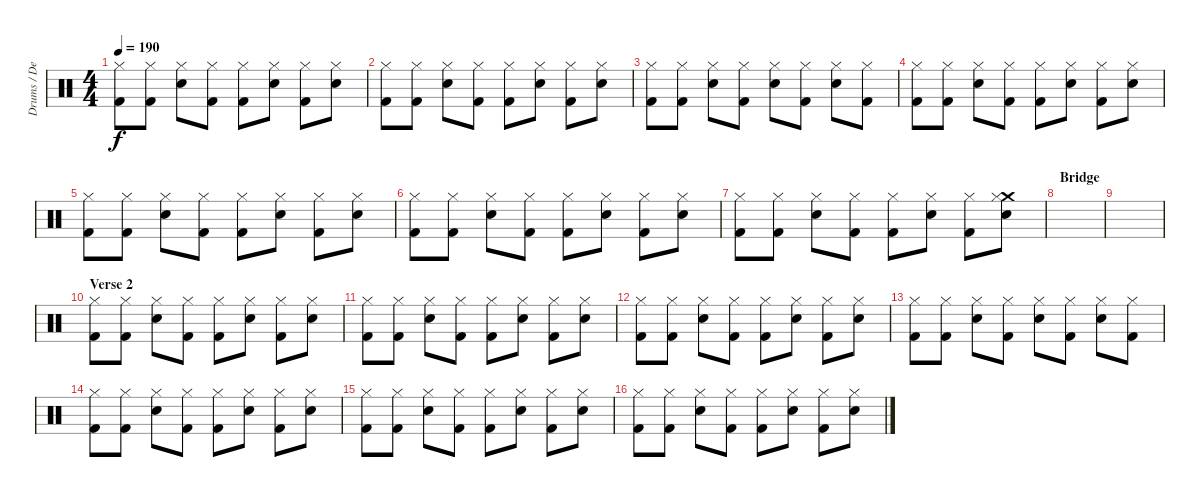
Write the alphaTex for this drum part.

\track ("Drums / Dennis" "Drums / De") {instrument percussion}
\staff {score}
\articulation defaults
\ts (4 4)
\tempo 190
\clef neutral
\ks c
("Kick (hit) 2" "Hi-Hat (closed)").8{dy f} ("Kick (hit) 2" "Hi-Hat (closed)").8 ("Snare (hit) 2" "Hi-Hat (closed)").8 ("Kick (hit) 2" "Hi-Hat (closed)").8 ("Kick (hit) 2" "Hi-Hat (closed)").8 ("Snare (hit) 2" "Hi-Hat (closed)").8 ("Kick (hit) 2" "Hi-Hat (closed)").8 ("Snare (hit) 2" "Hi-Hat (closed)").8 |
("Kick (hit) 2" "Hi-Hat (closed)").8 ("Kick (hit) 2" "Hi-Hat (closed)").8 ("Snare (hit) 2" "Hi-Hat (closed)").8 ("Kick (hit) 2" "Hi-Hat (closed)").8 ("Kick (hit) 2" "Hi-Hat (closed)").8 ("Snare (hit) 2" "Hi-Hat (closed)").8 ("Kick (hit) 2" "Hi-Hat (closed)").8 ("Snare (hit) 2" "Hi-Hat (closed)").8 |
("Kick (hit) 2" "Hi-Hat (closed)").8 ("Kick (hit) 2" "Hi-Hat (closed)").8 ("Snare (hit) 2" "Hi-Hat (closed)").8 ("Kick (hit) 2" "Hi-Hat (closed)").8 ("Snare (hit) 2" "Hi-Hat (closed)").8 ("Kick (hit) 2" "Hi-Hat (closed)").8 ("Snare (hit) 2" "Hi-Hat (closed)").8 ("Kick (hit) 2" "Hi-Hat (closed)").8 |
("Kick (hit) 2" "Hi-Hat (closed)").8 ("Kick (hit) 2" "Hi-Hat (closed)").8 ("Snare (hit) 2" "Hi-Hat (closed)").8 ("Kick (hit) 2" "Hi-Hat (closed)").8 ("Kick (hit) 2" "Hi-Hat (closed)").8 ("Snare (hit) 2" "Hi-Hat (closed)").8 ("Kick (hit) 2" "Hi-Hat (closed)").8 ("Snare (hit) 2" "Hi-Hat (closed)").8 |
("Kick (hit) 2" "Hi-Hat (closed)").8 ("Kick (hit) 2" "Hi-Hat (closed)").8 ("Snare (hit) 2" "Hi-Hat (closed)").8 ("Kick (hit) 2" "Hi-Hat (closed)").8 ("Kick (hit) 2" "Hi-Hat (closed)").8 ("Snare (hit) 2" "Hi-Hat (closed)").8 ("Kick (hit) 2" "Hi-Hat (closed)").8 ("Snare (hit) 2" "Hi-Hat (closed)").8 |
("Kick (hit) 2" "Hi-Hat (closed)").8 ("Kick (hit) 2" "Hi-Hat (closed)").8 ("Snare (hit) 2" "Hi-Hat (closed)").8 ("Kick (hit) 2" "Hi-Hat (closed)").8 ("Kick (hit) 2" "Hi-Hat (closed)").8 ("Snare (hit) 2" "Hi-Hat (closed)").8 ("Kick (hit) 2" "Hi-Hat (closed)").8 ("Snare (hit) 2" "Hi-Hat (closed)").8 |
("Kick (hit) 2" "Hi-Hat (closed)").8 ("Kick (hit) 2" "Hi-Hat (closed)").8 ("Snare (hit) 2" "Hi-Hat (closed)").8 ("Kick (hit) 2" "Hi-Hat (closed)").8 ("Kick (hit) 2" "Hi-Hat (closed)").8 ("Snare (hit) 2" "Hi-Hat (closed)").8 ("Kick (hit) 2" "Hi-Hat (closed)").8 ("Crash medium (hit)" "Snare (hit) 2" "Hi-Hat (closed)").8 |
\section ("" "Bridge")
|
|
\section ("" "Verse 2")
("Kick (hit) 2" "Hi-Hat (closed)").8 ("Kick (hit) 2" "Hi-Hat (closed)").8 ("Snare (hit) 2" "Hi-Hat (closed)").8 ("Kick (hit) 2" "Hi-Hat (closed)").8 ("Kick (hit) 2" "Hi-Hat (closed)").8 ("Snare (hit) 2" "Hi-Hat (closed)").8 ("Kick (hit) 2" "Hi-Hat (closed)").8 ("Snare (hit) 2" "Hi-Hat (closed)").8 |
("Kick (hit) 2" "Hi-Hat (closed)").8 ("Kick (hit) 2" "Hi-Hat (closed)").8 ("Snare (hit) 2" "Hi-Hat (closed)").8 ("Kick (hit) 2" "Hi-Hat (closed)").8 ("Kick (hit) 2" "Hi-Hat (closed)").8 ("Snare (hit) 2" "Hi-Hat (closed)").8 ("Kick (hit) 2" "Hi-Hat (closed)").8 ("Snare (hit) 2" "Hi-Hat (closed)").8 |
("Kick (hit) 2" "Hi-Hat (closed)").8 ("Kick (hit) 2" "Hi-Hat (closed)").8 ("Snare (hit) 2" "Hi-Hat (closed)").8 ("Kick (hit) 2" "Hi-Hat (closed)").8 ("Kick (hit) 2" "Hi-Hat (closed)").8 ("Snare (hit) 2" "Hi-Hat (closed)").8 ("Kick (hit) 2" "Hi-Hat (closed)").8 ("Snare (hit) 2" "Hi-Hat (closed)").8 |
("Kick (hit) 2" "Hi-Hat (closed)").8 ("Kick (hit) 2" "Hi-Hat (closed)").8 ("Snare (hit) 2" "Hi-Hat (closed)").8 ("Kick (hit) 2" "Hi-Hat (closed)").8 ("Snare (hit) 2" "Hi-Hat (closed)").8 ("Kick (hit) 2" "Hi-Hat (closed)").8 ("Snare (hit) 2" "Hi-Hat (closed)").8 ("Kick (hit) 2" "Hi-Hat (closed)").8 |
("Kick (hit) 2" "Hi-Hat (closed)").8 ("Kick (hit) 2" "Hi-Hat (closed)").8 ("Snare (hit) 2" "Hi-Hat (closed)").8 ("Kick (hit) 2" "Hi-Hat (closed)").8 ("Kick (hit) 2" "Hi-Hat (closed)").8 ("Snare (hit) 2" "Hi-Hat (closed)").8 ("Kick (hit) 2" "Hi-Hat (closed)").8 ("Snare (hit) 2" "Hi-Hat (closed)").8 |
("Kick (hit) 2" "Hi-Hat (closed)").8 ("Kick (hit) 2" "Hi-Hat (closed)").8 ("Snare (hit) 2" "Hi-Hat (closed)").8 ("Kick (hit) 2" "Hi-Hat (closed)").8 ("Kick (hit) 2" "Hi-Hat (closed)").8 ("Snare (hit) 2" "Hi-Hat (closed)").8 ("Kick (hit) 2" "Hi-Hat (closed)").8 ("Snare (hit) 2" "Hi-Hat (closed)").8 |
("Kick (hit) 2" "Hi-Hat (closed)").8 ("Kick (hit) 2" "Hi-Hat (closed)").8 ("Snare (hit) 2" "Hi-Hat (closed)").8 ("Kick (hit) 2" "Hi-Hat (closed)").8 ("Kick (hit) 2" "Hi-Hat (closed)").8 ("Snare (hit) 2" "Hi-Hat (closed)").8 ("Kick (hit) 2" "Hi-Hat (closed)").8 ("Snare (hit) 2" "Hi-Hat (closed)").8
